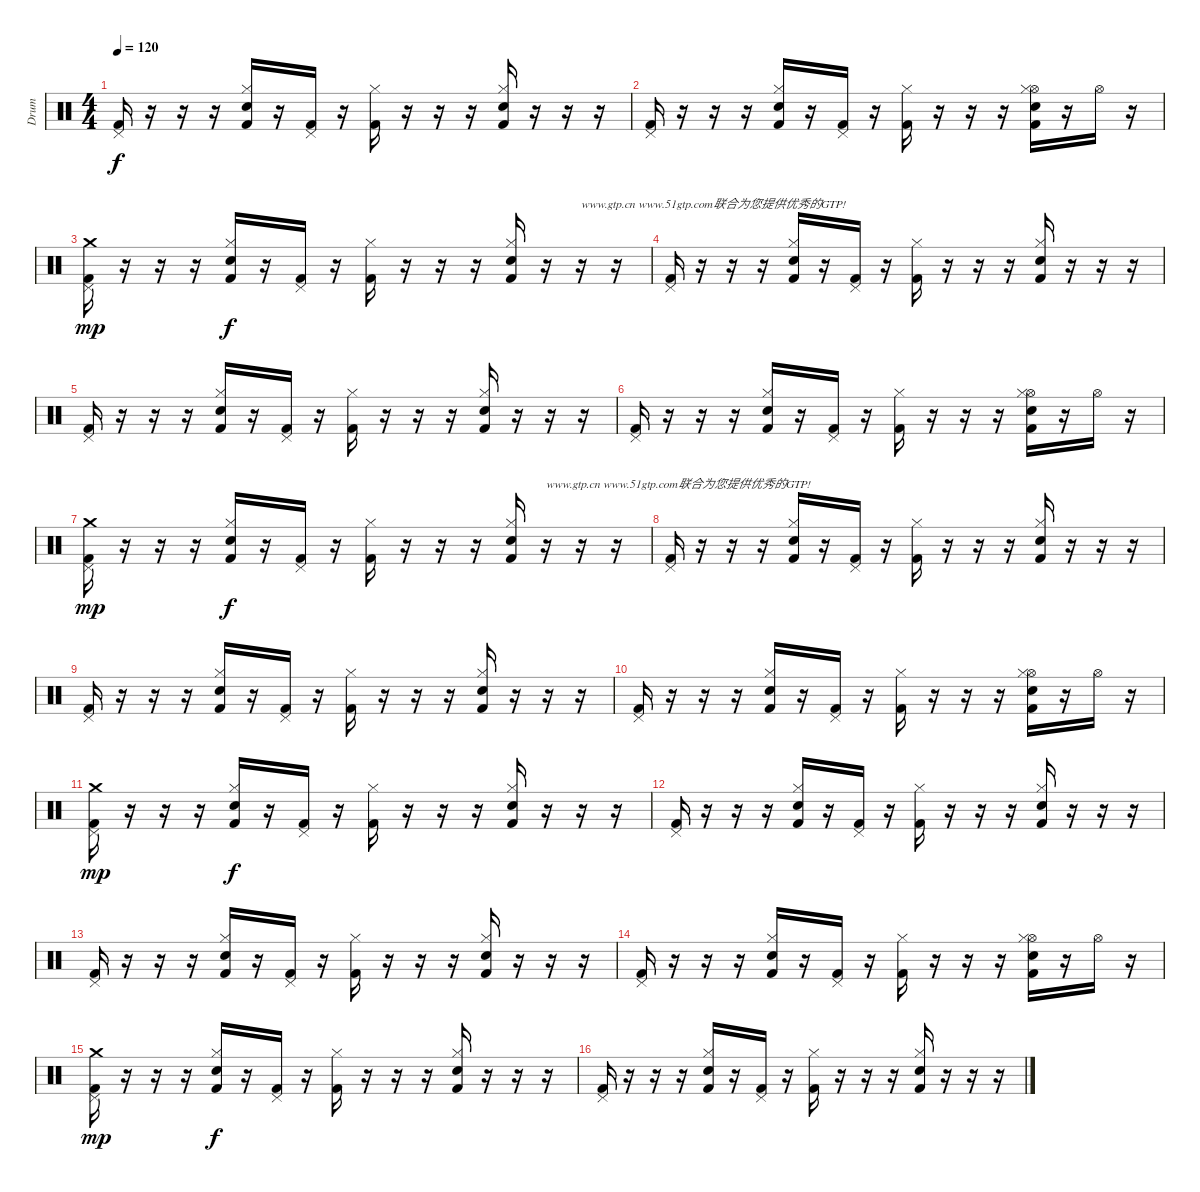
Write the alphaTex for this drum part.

\track ("Drum" "Drum") {instrument percussion}
\staff {score}
\articulation defaults
\ts (4 4)
\tempo 120
\clef neutral
\ks c
("Pedal Hi-Hat (hit)" "Kick (hit) 2").16{dy f} r.16 r.16 r.16 ("Hi-Hat (closed)" "Snare (hit) 2" "Kick (hit) 2").16 r.16 ("Pedal Hi-Hat (hit)" "Kick (hit) 2").16 r.16 ("Hi-Hat (closed)" "Kick (hit) 2").16 r.16 r.16 r.16 ("Hi-Hat (closed)" "Snare (hit) 2" "Kick (hit) 2").16 r.16 r.16 r.16 |
("Pedal Hi-Hat (hit)" "Kick (hit) 2").16 r.16 r.16 r.16 ("Hi-Hat (closed)" "Snare (hit) 2" "Kick (hit) 2").16 r.16 ("Pedal Hi-Hat (hit)" "Kick (hit) 2").16 r.16 ("Hi-Hat (closed)" "Kick (hit) 2").16 r.16 r.16 r.16 ("Hi-Hat (open)" "Hi-Hat (closed)" "Snare (hit) 2" "Kick (hit) 2").16 r.16 "Hi-Hat (open)".16 r.16 |
("Crash medium (hit)" "Pedal Hi-Hat (hit)" "Kick (hit) 2").16{dy mp} r.16 r.16 r.16 ("Hi-Hat (closed)" "Snare (hit) 2" "Kick (hit) 2").16{dy f} r.16 ("Pedal Hi-Hat (hit)" "Kick (hit) 2").16 r.16 ("Hi-Hat (closed)" "Kick (hit) 2").16 r.16 r.16 r.16 ("Hi-Hat (closed)" "Snare (hit) 2" "Kick (hit) 2").16 r.16 r.16{txt "www.gtp.cn www.51gtp.com联合为您提供优秀的GTP!"} r.16 |
("Pedal Hi-Hat (hit)" "Kick (hit) 2").16 r.16 r.16 r.16 ("Hi-Hat (closed)" "Snare (hit) 2" "Kick (hit) 2").16 r.16 ("Pedal Hi-Hat (hit)" "Kick (hit) 2").16 r.16 ("Hi-Hat (closed)" "Kick (hit) 2").16 r.16 r.16 r.16 ("Hi-Hat (closed)" "Snare (hit) 2" "Kick (hit) 2").16 r.16 r.16 r.16 |
("Pedal Hi-Hat (hit)" "Kick (hit) 2").16 r.16 r.16 r.16 ("Hi-Hat (closed)" "Snare (hit) 2" "Kick (hit) 2").16 r.16 ("Pedal Hi-Hat (hit)" "Kick (hit) 2").16 r.16 ("Hi-Hat (closed)" "Kick (hit) 2").16 r.16 r.16 r.16 ("Hi-Hat (closed)" "Snare (hit) 2" "Kick (hit) 2").16 r.16 r.16 r.16 |
("Pedal Hi-Hat (hit)" "Kick (hit) 2").16 r.16 r.16 r.16 ("Hi-Hat (closed)" "Snare (hit) 2" "Kick (hit) 2").16 r.16 ("Pedal Hi-Hat (hit)" "Kick (hit) 2").16 r.16 ("Hi-Hat (closed)" "Kick (hit) 2").16 r.16 r.16 r.16 ("Hi-Hat (open)" "Hi-Hat (closed)" "Snare (hit) 2" "Kick (hit) 2").16 r.16 "Hi-Hat (open)".16 r.16 |
("Crash medium (hit)" "Pedal Hi-Hat (hit)" "Kick (hit) 2").16{dy mp} r.16 r.16 r.16 ("Hi-Hat (closed)" "Snare (hit) 2" "Kick (hit) 2").16{dy f} r.16 ("Pedal Hi-Hat (hit)" "Kick (hit) 2").16 r.16 ("Hi-Hat (closed)" "Kick (hit) 2").16 r.16 r.16 r.16 ("Hi-Hat (closed)" "Snare (hit) 2" "Kick (hit) 2").16 r.16{txt "www.gtp.cn www.51gtp.com联合为您提供优秀的GTP!"} r.16 r.16 |
("Pedal Hi-Hat (hit)" "Kick (hit) 2").16 r.16 r.16 r.16 ("Hi-Hat (closed)" "Snare (hit) 2" "Kick (hit) 2").16 r.16 ("Pedal Hi-Hat (hit)" "Kick (hit) 2").16 r.16 ("Hi-Hat (closed)" "Kick (hit) 2").16 r.16 r.16 r.16 ("Hi-Hat (closed)" "Snare (hit) 2" "Kick (hit) 2").16 r.16 r.16 r.16 |
("Pedal Hi-Hat (hit)" "Kick (hit) 2").16 r.16 r.16 r.16 ("Hi-Hat (closed)" "Snare (hit) 2" "Kick (hit) 2").16 r.16 ("Pedal Hi-Hat (hit)" "Kick (hit) 2").16 r.16 ("Hi-Hat (closed)" "Kick (hit) 2").16 r.16 r.16 r.16 ("Hi-Hat (closed)" "Snare (hit) 2" "Kick (hit) 2").16 r.16 r.16 r.16 |
("Pedal Hi-Hat (hit)" "Kick (hit) 2").16 r.16 r.16 r.16 ("Hi-Hat (closed)" "Snare (hit) 2" "Kick (hit) 2").16 r.16 ("Pedal Hi-Hat (hit)" "Kick (hit) 2").16 r.16 ("Hi-Hat (closed)" "Kick (hit) 2").16 r.16 r.16 r.16 ("Hi-Hat (open)" "Hi-Hat (closed)" "Snare (hit) 2" "Kick (hit) 2").16 r.16 "Hi-Hat (open)".16 r.16 |
("Crash medium (hit)" "Pedal Hi-Hat (hit)" "Kick (hit) 2").16{dy mp} r.16 r.16 r.16 ("Hi-Hat (closed)" "Snare (hit) 2" "Kick (hit) 2").16{dy f} r.16 ("Pedal Hi-Hat (hit)" "Kick (hit) 2").16 r.16 ("Hi-Hat (closed)" "Kick (hit) 2").16 r.16 r.16 r.16 ("Hi-Hat (closed)" "Snare (hit) 2" "Kick (hit) 2").16 r.16 r.16 r.16 |
("Pedal Hi-Hat (hit)" "Kick (hit) 2").16 r.16 r.16 r.16 ("Hi-Hat (closed)" "Snare (hit) 2" "Kick (hit) 2").16 r.16 ("Pedal Hi-Hat (hit)" "Kick (hit) 2").16 r.16 ("Hi-Hat (closed)" "Kick (hit) 2").16 r.16 r.16 r.16 ("Hi-Hat (closed)" "Snare (hit) 2" "Kick (hit) 2").16 r.16 r.16 r.16 |
("Pedal Hi-Hat (hit)" "Kick (hit) 2").16 r.16 r.16 r.16 ("Hi-Hat (closed)" "Snare (hit) 2" "Kick (hit) 2").16 r.16 ("Pedal Hi-Hat (hit)" "Kick (hit) 2").16 r.16 ("Hi-Hat (closed)" "Kick (hit) 2").16 r.16 r.16 r.16 ("Hi-Hat (closed)" "Snare (hit) 2" "Kick (hit) 2").16 r.16 r.16 r.16 |
("Pedal Hi-Hat (hit)" "Kick (hit) 2").16 r.16 r.16 r.16 ("Hi-Hat (closed)" "Snare (hit) 2" "Kick (hit) 2").16 r.16 ("Pedal Hi-Hat (hit)" "Kick (hit) 2").16 r.16 ("Hi-Hat (closed)" "Kick (hit) 2").16 r.16 r.16 r.16 ("Hi-Hat (open)" "Hi-Hat (closed)" "Snare (hit) 2" "Kick (hit) 2").16 r.16 "Hi-Hat (open)".16 r.16 |
("Crash medium (hit)" "Pedal Hi-Hat (hit)" "Kick (hit) 2").16{dy mp} r.16 r.16 r.16 ("Hi-Hat (closed)" "Snare (hit) 2" "Kick (hit) 2").16{dy f} r.16 ("Pedal Hi-Hat (hit)" "Kick (hit) 2").16 r.16 ("Hi-Hat (closed)" "Kick (hit) 2").16 r.16 r.16 r.16 ("Hi-Hat (closed)" "Snare (hit) 2" "Kick (hit) 2").16 r.16 r.16 r.16 |
("Pedal Hi-Hat (hit)" "Kick (hit) 2").16 r.16 r.16 r.16 ("Hi-Hat (closed)" "Snare (hit) 2" "Kick (hit) 2").16 r.16 ("Pedal Hi-Hat (hit)" "Kick (hit) 2").16 r.16 ("Hi-Hat (closed)" "Kick (hit) 2").16 r.16 r.16 r.16 ("Hi-Hat (closed)" "Snare (hit) 2" "Kick (hit) 2").16 r.16 r.16 r.16
